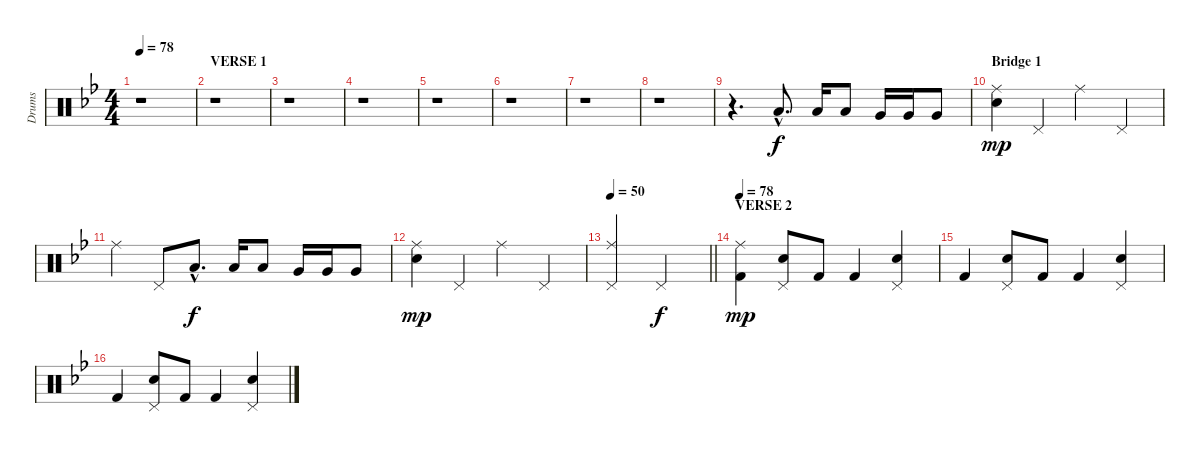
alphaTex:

\track ("Drums" "Drums") {instrument percussion}
\staff {score}
\articulation defaults
\ts (4 4)
\tempo 78
\clef neutral
\ks bb
r.1{dy f} |
\section ("" "VERSE 1")
r.1 |
r.1 |
r.1 |
r.1 |
r.1 |
r.1 |
r.1 |
r.4{d} "Low Tom (hit)"{hac}.8{d} "Low Tom (hit)".16 "Low Tom (hit)".8 "Very Low Tom (hit)".16 "Very Low Tom (hit)".16 "Very Low Tom (hit)".8 |
\section ("" "Bridge 1")
("Ride (middle)" "Snare (hit) 2").4{dy mp} "Pedal Hi-Hat (hit)".4 "Ride (middle)".4 "Pedal Hi-Hat (hit)".4 |
"Ride (middle)".4 "Pedal Hi-Hat (hit)".8 "Low Tom (hit)"{hac}.8{d dy f} "Low Tom (hit)".16 "Low Tom (hit)".8 "Very Low Tom (hit)".16 "Very Low Tom (hit)".16 "Very Low Tom (hit)".8 |
("Ride (middle)" "Snare (hit) 2").4{dy mp} "Pedal Hi-Hat (hit)".4 "Ride (middle)".4 "Pedal Hi-Hat (hit)".4 |
\tempo 50
\barLineRight lightlight
("Ride (middle)" "Pedal Hi-Hat (hit)").2 "Pedal Hi-Hat (hit)".2{dy f} |
\section ("" "VERSE 2")
\tempo 78
("Ride (middle)" "Kick (hit) 2").4{dy mp} ("Pedal Hi-Hat (hit)" "Snare (hit) 2").8 "Kick (hit) 2".8 "Kick (hit) 2".4 ("Pedal Hi-Hat (hit)" "Snare (hit) 2").4 |
"Kick (hit) 2".4 ("Pedal Hi-Hat (hit)" "Snare (hit) 2").8 "Kick (hit) 2".8 "Kick (hit) 2".4 ("Pedal Hi-Hat (hit)" "Snare (hit) 2").4 |
"Kick (hit) 2".4 ("Pedal Hi-Hat (hit)" "Snare (hit) 2").8 "Kick (hit) 2".8 "Kick (hit) 2".4 ("Pedal Hi-Hat (hit)" "Snare (hit) 2").4
